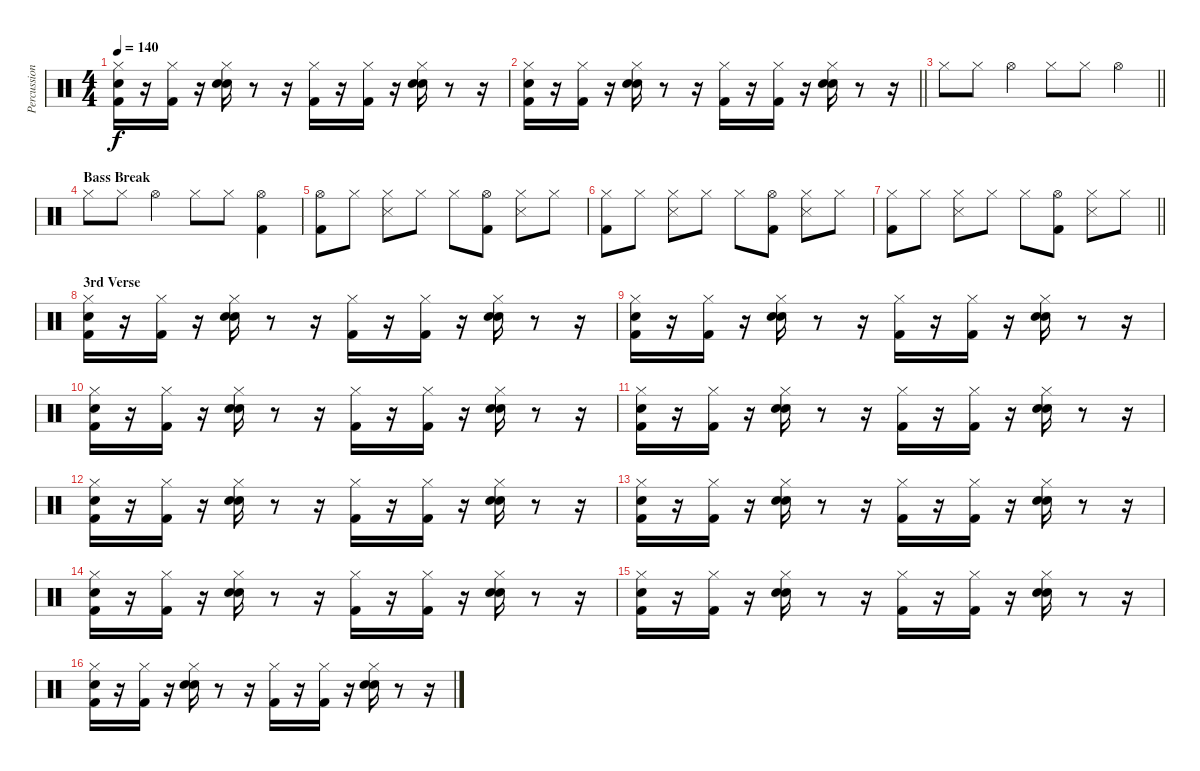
\track ("Percussion" "Percussion") {instrument percussion}
\staff {score}
\articulation defaults
\ts (4 4)
\tempo 140
\clef neutral
\ks c
("Snare (hit)" "Kick (hit) 2" "Hi-Hat (closed)").16{dy f} r.16 ("Kick (hit) 2" "Hi-Hat (closed)").16 r.16 ("Hand Clap (hit)" "Hi-Hat (closed)" "Snare (hit) 2").16 r.8 r.16 ("Hi-Hat (closed)" "Kick (hit) 2").16 r.16 ("Hi-Hat (closed)" "Kick (hit) 2").16 r.16 ("Snare (hit) 2" "Hand Clap (hit)" "Hi-Hat (closed)").16 r.8 r.16 |
\barLineRight lightlight
("Snare (hit)" "Kick (hit) 2" "Hi-Hat (closed)").16 r.16 ("Kick (hit) 2" "Hi-Hat (closed)").16 r.16 ("Hand Clap (hit)" "Hi-Hat (closed)" "Snare (hit) 2").16 r.8 r.16 ("Hi-Hat (closed)" "Kick (hit) 2").16 r.16 ("Hi-Hat (closed)" "Kick (hit) 2").16 r.16 ("Snare (hit) 2" "Hand Clap (hit)" "Hi-Hat (closed)").16 r.8 r.16 |
\barLineRight lightlight "Hi-Hat (closed)".8 "Hi-Hat (closed)".8 "Hi-Hat (open)".4 "Hi-Hat (closed)".8 "Hi-Hat (closed)".8 "Hi-Hat (open)".4
|
\section ("" "Bass Break")
"Hi-Hat (closed)".8 "Hi-Hat (closed)".8 "Hi-Hat (open)".4 "Hi-Hat (closed)".8 "Hi-Hat (closed)".8 ("Hi-Hat (open)" "Kick (hit) 2").4 |
("Hi-Hat (open)" "Kick (hit) 2").8 "Hi-Hat (closed)".8 ("Hi-Hat (closed)" "Snare (side stick) 3").8 "Hi-Hat (closed)".8 "Hi-Hat (closed)".8 ("Hi-Hat (open)" "Kick (hit) 2").8 ("Hi-Hat (closed)" "Snare (side stick) 3").8 "Hi-Hat (closed)".8 |
("Hi-Hat (closed)" "Kick (hit) 2").8 "Hi-Hat (closed)".8 ("Hi-Hat (closed)" "Snare (side stick) 3").8 "Hi-Hat (closed)".8 "Hi-Hat (closed)".8 ("Hi-Hat (open)" "Kick (hit) 2").8 ("Hi-Hat (closed)" "Snare (side stick) 3").8 "Hi-Hat (closed)".8 |
\barLineRight lightlight
("Hi-Hat (closed)" "Kick (hit) 2").8 "Hi-Hat (closed)".8 ("Hi-Hat (closed)" "Snare (side stick) 3").8 "Hi-Hat (closed)".8 "Hi-Hat (closed)".8 ("Hi-Hat (open)" "Kick (hit) 2").8 ("Hi-Hat (closed)" "Snare (side stick) 3").8 "Hi-Hat (closed)".8 |
\section ("" "3rd Verse")
("Snare (hit)" "Kick (hit) 2" "Hi-Hat (closed)").16 r.16 ("Kick (hit) 2" "Hi-Hat (closed)").16 r.16 ("Hand Clap (hit)" "Hi-Hat (closed)" "Snare (hit) 2").16 r.8 r.16 ("Hi-Hat (closed)" "Kick (hit) 2").16 r.16 ("Hi-Hat (closed)" "Kick (hit) 2").16 r.16 ("Snare (hit) 2" "Hand Clap (hit)" "Hi-Hat (closed)").16 r.8 r.16 |
("Snare (hit)" "Kick (hit) 2" "Hi-Hat (closed)").16 r.16 ("Kick (hit) 2" "Hi-Hat (closed)").16 r.16 ("Hand Clap (hit)" "Hi-Hat (closed)" "Snare (hit) 2").16 r.8 r.16 ("Hi-Hat (closed)" "Kick (hit) 2").16 r.16 ("Hi-Hat (closed)" "Kick (hit) 2").16 r.16 ("Snare (hit) 2" "Hand Clap (hit)" "Hi-Hat (closed)").16 r.8 r.16 |
("Snare (hit)" "Kick (hit) 2" "Hi-Hat (closed)").16 r.16 ("Kick (hit) 2" "Hi-Hat (closed)").16 r.16 ("Hand Clap (hit)" "Hi-Hat (closed)" "Snare (hit) 2").16 r.8 r.16 ("Hi-Hat (closed)" "Kick (hit) 2").16 r.16 ("Hi-Hat (closed)" "Kick (hit) 2").16 r.16 ("Snare (hit) 2" "Hand Clap (hit)" "Hi-Hat (closed)").16 r.8 r.16 |
("Snare (hit)" "Kick (hit) 2" "Hi-Hat (closed)").16 r.16 ("Kick (hit) 2" "Hi-Hat (closed)").16 r.16 ("Hand Clap (hit)" "Hi-Hat (closed)" "Snare (hit) 2").16 r.8 r.16 ("Hi-Hat (closed)" "Kick (hit) 2").16 r.16 ("Hi-Hat (closed)" "Kick (hit) 2").16 r.16 ("Snare (hit) 2" "Hand Clap (hit)" "Hi-Hat (closed)").16 r.8 r.16 |
("Snare (hit)" "Kick (hit) 2" "Hi-Hat (closed)").16 r.16 ("Kick (hit) 2" "Hi-Hat (closed)").16 r.16 ("Hand Clap (hit)" "Hi-Hat (closed)" "Snare (hit) 2").16 r.8 r.16 ("Hi-Hat (closed)" "Kick (hit) 2").16 r.16 ("Hi-Hat (closed)" "Kick (hit) 2").16 r.16 ("Snare (hit) 2" "Hand Clap (hit)" "Hi-Hat (closed)").16 r.8 r.16 |
("Snare (hit)" "Kick (hit) 2" "Hi-Hat (closed)").16 r.16 ("Kick (hit) 2" "Hi-Hat (closed)").16 r.16 ("Hand Clap (hit)" "Hi-Hat (closed)" "Snare (hit) 2").16 r.8 r.16 ("Hi-Hat (closed)" "Kick (hit) 2").16 r.16 ("Hi-Hat (closed)" "Kick (hit) 2").16 r.16 ("Snare (hit) 2" "Hand Clap (hit)" "Hi-Hat (closed)").16 r.8 r.16 |
("Snare (hit)" "Kick (hit) 2" "Hi-Hat (closed)").16 r.16 ("Kick (hit) 2" "Hi-Hat (closed)").16 r.16 ("Hand Clap (hit)" "Hi-Hat (closed)" "Snare (hit) 2").16 r.8 r.16 ("Hi-Hat (closed)" "Kick (hit) 2").16 r.16 ("Hi-Hat (closed)" "Kick (hit) 2").16 r.16 ("Snare (hit) 2" "Hand Clap (hit)" "Hi-Hat (closed)").16 r.8 r.16 |
("Snare (hit)" "Kick (hit) 2" "Hi-Hat (closed)").16 r.16 ("Kick (hit) 2" "Hi-Hat (closed)").16 r.16 ("Hand Clap (hit)" "Hi-Hat (closed)" "Snare (hit) 2").16 r.8 r.16 ("Hi-Hat (closed)" "Kick (hit) 2").16 r.16 ("Hi-Hat (closed)" "Kick (hit) 2").16 r.16 ("Snare (hit) 2" "Hand Clap (hit)" "Hi-Hat (closed)").16 r.8 r.16 |
("Snare (hit)" "Kick (hit) 2" "Hi-Hat (closed)").16 r.16 ("Kick (hit) 2" "Hi-Hat (closed)").16 r.16 ("Hand Clap (hit)" "Hi-Hat (closed)" "Snare (hit) 2").16 r.8 r.16 ("Hi-Hat (closed)" "Kick (hit) 2").16 r.16 ("Hi-Hat (closed)" "Kick (hit) 2").16 r.16 ("Snare (hit) 2" "Hand Clap (hit)" "Hi-Hat (closed)").16 r.8 r.16
